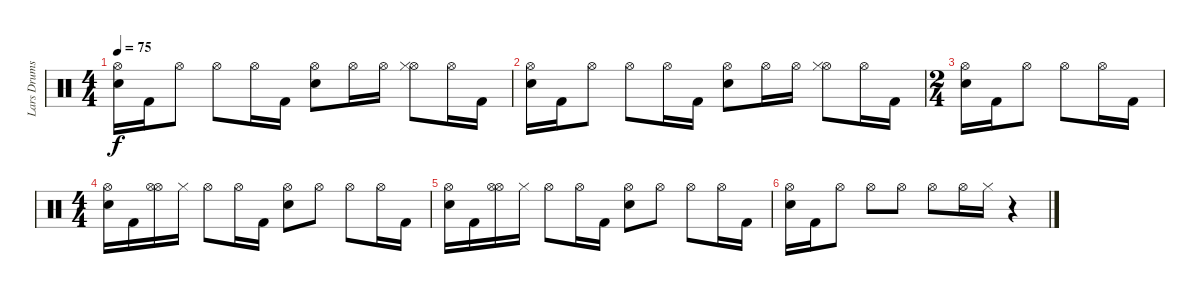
\track ("Lars Drums" "Lars Drums") {instrument percussion}
\staff {score}
\articulation defaults
\ts (4 4)
\tempo 75
\clef neutral
\ks c
("Hi-Hat (open)" "Snare (hit) 2").16{dy f} "Kick (hit) 2".16 "Hi-Hat (open)".8 "Hi-Hat (open)".8 "Hi-Hat (open)".16 "Kick (hit) 2".16 ("Hi-Hat (open)" "Snare (hit) 2").8 "Hi-Hat (open)".16 "Hi-Hat (open)".16 ("Hi-Hat (open)" "Hi-Hat (closed)").8 "Hi-Hat (open)".16 "Kick (hit) 2".16 |
("Hi-Hat (open)" "Snare (hit) 2").16 "Kick (hit) 2".16 "Hi-Hat (open)".8 "Hi-Hat (open)".8 "Hi-Hat (open)".16 "Kick (hit) 2".16 ("Hi-Hat (open)" "Snare (hit) 2").8 "Hi-Hat (open)".16 "Hi-Hat (open)".16 ("Hi-Hat (open)" "Hi-Hat (closed)").8 "Hi-Hat (open)".16 "Kick (hit) 2".16 |
\ts (2 4)
("Hi-Hat (open)" "Snare (hit) 2").16 "Kick (hit) 2".16 "Hi-Hat (open)".8 "Hi-Hat (open)".8 "Hi-Hat (open)".16 "Kick (hit) 2".16 |
\ts (4 4)
("Hi-Hat (open)" "Snare (hit) 2").16 "Kick (hit) 2".16 ("Hi-Hat (open)" "Hi-Hat (open)").16 "Hi-Hat (closed)".16 "Hi-Hat (open)".8 "Hi-Hat (open)".16 "Kick (hit) 2".16 ("Hi-Hat (open)" "Snare (hit) 2").8 "Hi-Hat (open)".8 "Hi-Hat (open)".8 "Hi-Hat (open)".16 "Kick (hit) 2".16 |
("Hi-Hat (open)" "Snare (hit) 2").16 "Kick (hit) 2".16 ("Hi-Hat (open)" "Hi-Hat (open)").16 "Hi-Hat (closed)".16 "Hi-Hat (open)".8 "Hi-Hat (open)".16 "Kick (hit) 2".16 ("Hi-Hat (open)" "Snare (hit) 2").8 "Hi-Hat (open)".8 "Hi-Hat (open)".8 "Hi-Hat (open)".16 "Kick (hit) 2".16 |
("Hi-Hat (open)" "Snare (hit) 2").16 "Kick (hit) 2".16 "Hi-Hat (open)".8 "Hi-Hat (open)".8 "Hi-Hat (open)".8 "Hi-Hat (open)".8 "Hi-Hat (open)".16 "Hi-Hat (closed)".16 r.4
